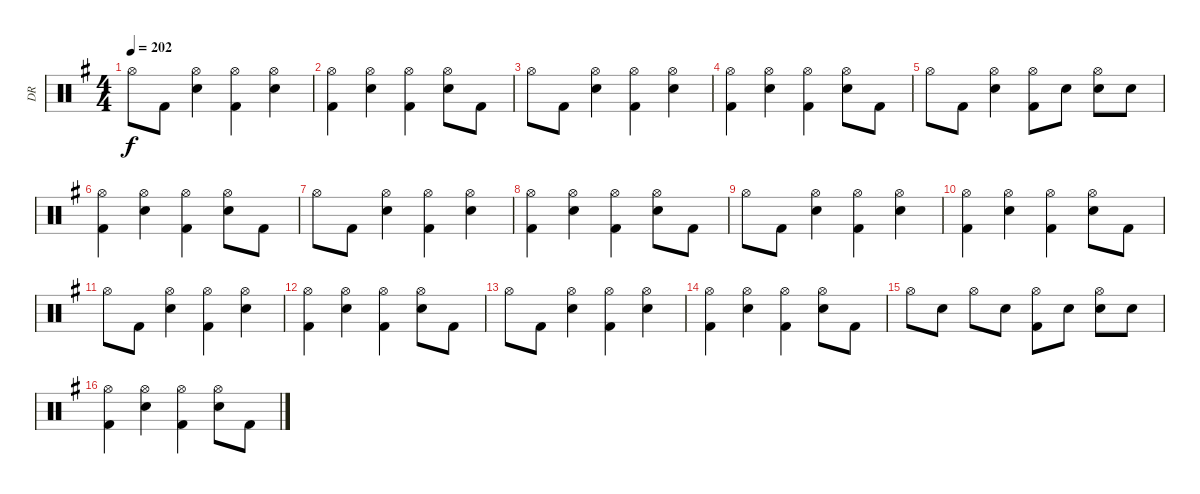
\track ("DR" "DR") {instrument percussion}
\staff {score}
\articulation defaults
\ts (4 4)
\tempo 202
\clef neutral
\ks g "Hi-Hat (open)".8{dy f} "Kick (hit) 2".8
("Hi-Hat (open)" "Electric Snare (hit)").4 ("Hi-Hat (open)" "Kick (hit) 2").4 ("Hi-Hat (open)" "Electric Snare (hit)").4 |
("Hi-Hat (open)" "Kick (hit) 2").4 ("Hi-Hat (open)" "Electric Snare (hit)").4 ("Hi-Hat (open)" "Kick (hit) 2").4 ("Hi-Hat (open)" "Electric Snare (hit)").8 "Kick (hit) 2".8 |
"Hi-Hat (open)".8 "Kick (hit) 2".8 ("Hi-Hat (open)" "Electric Snare (hit)").4 ("Hi-Hat (open)" "Kick (hit) 2").4 ("Hi-Hat (open)" "Electric Snare (hit)").4 |
("Hi-Hat (open)" "Kick (hit) 2").4 ("Hi-Hat (open)" "Electric Snare (hit)").4 ("Hi-Hat (open)" "Kick (hit) 2").4 ("Hi-Hat (open)" "Electric Snare (hit)").8 "Kick (hit) 2".8 |
"Hi-Hat (open)".8 "Kick (hit) 2".8 ("Hi-Hat (open)" "Electric Snare (hit)").4 ("Hi-Hat (open)" "Kick (hit) 2").8 "Electric Snare (hit)".8 ("Hi-Hat (open)" "Electric Snare (hit)").8 "Electric Snare (hit)".8 |
("Hi-Hat (open)" "Kick (hit) 2").4 ("Hi-Hat (open)" "Electric Snare (hit)").4 ("Hi-Hat (open)" "Kick (hit) 2").4 ("Hi-Hat (open)" "Electric Snare (hit)").8 "Kick (hit) 2".8 |
"Hi-Hat (open)".8 "Kick (hit) 2".8 ("Hi-Hat (open)" "Electric Snare (hit)").4 ("Hi-Hat (open)" "Kick (hit) 2").4 ("Hi-Hat (open)" "Electric Snare (hit)").4 |
("Hi-Hat (open)" "Kick (hit) 2").4 ("Hi-Hat (open)" "Electric Snare (hit)").4 ("Hi-Hat (open)" "Kick (hit) 2").4 ("Hi-Hat (open)" "Electric Snare (hit)").8 "Kick (hit) 2".8 |
"Hi-Hat (open)".8 "Kick (hit) 2".8 ("Hi-Hat (open)" "Electric Snare (hit)").4 ("Hi-Hat (open)" "Kick (hit) 2").4 ("Hi-Hat (open)" "Electric Snare (hit)").4 |
("Hi-Hat (open)" "Kick (hit) 2").4 ("Hi-Hat (open)" "Electric Snare (hit)").4 ("Hi-Hat (open)" "Kick (hit) 2").4 ("Hi-Hat (open)" "Electric Snare (hit)").8 "Kick (hit) 2".8 |
"Hi-Hat (open)".8 "Kick (hit) 2".8 ("Hi-Hat (open)" "Electric Snare (hit)").4 ("Hi-Hat (open)" "Kick (hit) 2").4 ("Hi-Hat (open)" "Electric Snare (hit)").4 |
("Hi-Hat (open)" "Kick (hit) 2").4 ("Hi-Hat (open)" "Electric Snare (hit)").4 ("Hi-Hat (open)" "Kick (hit) 2").4 ("Hi-Hat (open)" "Electric Snare (hit)").8 "Kick (hit) 2".8 |
"Hi-Hat (open)".8 "Kick (hit) 2".8 ("Hi-Hat (open)" "Electric Snare (hit)").4 ("Hi-Hat (open)" "Kick (hit) 2").4 ("Hi-Hat (open)" "Electric Snare (hit)").4 |
("Hi-Hat (open)" "Kick (hit) 2").4 ("Hi-Hat (open)" "Electric Snare (hit)").4 ("Hi-Hat (open)" "Kick (hit) 2").4 ("Hi-Hat (open)" "Electric Snare (hit)").8 "Kick (hit) 2".8 |
"Hi-Hat (open)".8 "Electric Snare (hit)".8 "Hi-Hat (open)".8 "Electric Snare (hit)".8 ("Hi-Hat (open)" "Kick (hit) 2").8 "Electric Snare (hit)".8 ("Hi-Hat (open)" "Electric Snare (hit)").8 "Electric Snare (hit)".8 |
("Hi-Hat (open)" "Kick (hit) 2").4 ("Hi-Hat (open)" "Electric Snare (hit)").4 ("Hi-Hat (open)" "Kick (hit) 2").4 ("Hi-Hat (open)" "Electric Snare (hit)").8 "Kick (hit) 2".8
